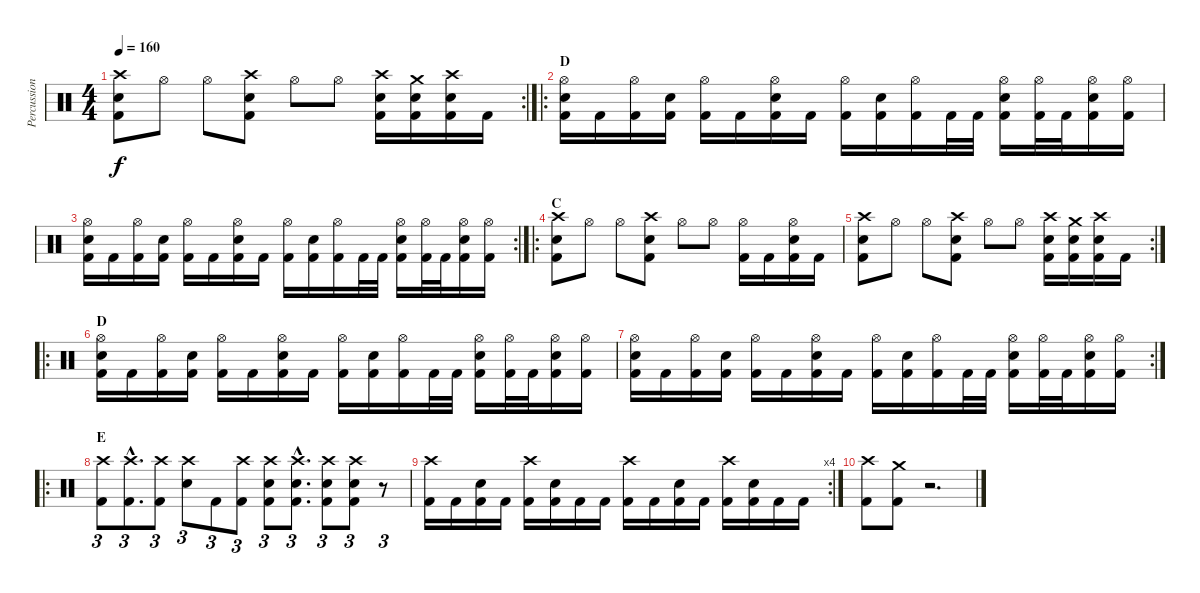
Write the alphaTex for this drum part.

\track ("Percussions" "Percussion") {instrument percussion}
\staff {score}
\articulation defaults
\rc 2
\ts (4 4)
\tempo 160
\clef neutral
\ks c
("Crash high (hit)" "Electric Snare (hit)" "Kick (hit) 2").8{dy f} "Hi-Hat (open)".8 "Hi-Hat (open)".8 ("Crash high (hit)" "Electric Snare (hit)" "Kick (hit) 2").8 "Hi-Hat (open)".8 "Hi-Hat (open)".8 ("Crash high (hit)" "Electric Snare (hit)" "Kick (hit) 2").16 ("Crash medium (hit)" "Electric Snare (hit)" "Kick (hit) 2").16 ("Crash high (hit)" "Electric Snare (hit)" "Kick (hit) 2").16 "Kick (hit) 2".16 |
\ro
\section ("" "D")
("Hi-Hat (open)" "Electric Snare (hit)" "Kick (hit) 2").16 "Kick (hit) 2".16 ("Hi-Hat (open)" "Kick (hit) 2").16 ("Electric Snare (hit)" "Kick (hit) 2").16 ("Hi-Hat (open)" "Kick (hit) 2").16 "Kick (hit) 2".16 ("Hi-Hat (open)" "Electric Snare (hit)" "Kick (hit) 2").16 "Kick (hit) 2".16 ("Hi-Hat (open)" "Kick (hit) 2").16 ("Electric Snare (hit)" "Kick (hit) 2").16 ("Hi-Hat (open)" "Kick (hit) 2").16 "Kick (hit) 2".32 "Kick (hit) 2".32 ("Hi-Hat (open)" "Electric Snare (hit)" "Kick (hit) 2").16 ("Hi-Hat (open)" "Kick (hit) 2").32 "Kick (hit) 2".32 ("Hi-Hat (open)" "Electric Snare (hit)" "Kick (hit) 2").16 ("Hi-Hat (open)" "Kick (hit) 2").16 |
\rc 2
("Hi-Hat (open)" "Electric Snare (hit)" "Kick (hit) 2").16 "Kick (hit) 2".16 ("Hi-Hat (open)" "Kick (hit) 2").16 ("Electric Snare (hit)" "Kick (hit) 2").16 ("Hi-Hat (open)" "Kick (hit) 2").16 "Kick (hit) 2".16 ("Hi-Hat (open)" "Electric Snare (hit)" "Kick (hit) 2").16 "Kick (hit) 2".16 ("Hi-Hat (open)" "Kick (hit) 2").16 ("Electric Snare (hit)" "Kick (hit) 2").16 ("Hi-Hat (open)" "Kick (hit) 2").16 "Kick (hit) 2".32 "Kick (hit) 2".32 ("Hi-Hat (open)" "Electric Snare (hit)" "Kick (hit) 2").16 ("Hi-Hat (open)" "Kick (hit) 2").32 "Kick (hit) 2".32 ("Hi-Hat (open)" "Electric Snare (hit)" "Kick (hit) 2").16 ("Hi-Hat (open)" "Kick (hit) 2").16 |
\ro
\section ("" "C")
("Crash high (hit)" "Electric Snare (hit)" "Kick (hit) 2").8 "Hi-Hat (open)".8 "Hi-Hat (open)".8 ("Crash high (hit)" "Electric Snare (hit)" "Kick (hit) 2").8 "Hi-Hat (open)".8 "Hi-Hat (open)".8 ("Hi-Hat (open)" "Kick (hit) 2").16 "Kick (hit) 2".16 ("Hi-Hat (open)" "Electric Snare (hit)" "Kick (hit) 2").16 "Kick (hit) 2".16 |
\rc 2
("Crash high (hit)" "Electric Snare (hit)" "Kick (hit) 2").8 "Hi-Hat (open)".8 "Hi-Hat (open)".8 ("Crash high (hit)" "Electric Snare (hit)" "Kick (hit) 2").8 "Hi-Hat (open)".8 "Hi-Hat (open)".8 ("Crash high (hit)" "Electric Snare (hit)" "Kick (hit) 2").16 ("Crash medium (hit)" "Electric Snare (hit)" "Kick (hit) 2").16 ("Crash high (hit)" "Electric Snare (hit)" "Kick (hit) 2").16 "Kick (hit) 2".16 |
\ro
\section ("" "D")
("Hi-Hat (open)" "Electric Snare (hit)" "Kick (hit) 2").16 "Kick (hit) 2".16 ("Hi-Hat (open)" "Kick (hit) 2").16 ("Electric Snare (hit)" "Kick (hit) 2").16 ("Hi-Hat (open)" "Kick (hit) 2").16 "Kick (hit) 2".16 ("Hi-Hat (open)" "Electric Snare (hit)" "Kick (hit) 2").16 "Kick (hit) 2".16 ("Hi-Hat (open)" "Kick (hit) 2").16 ("Electric Snare (hit)" "Kick (hit) 2").16 ("Hi-Hat (open)" "Kick (hit) 2").16 "Kick (hit) 2".32 "Kick (hit) 2".32 ("Hi-Hat (open)" "Electric Snare (hit)" "Kick (hit) 2").16 ("Hi-Hat (open)" "Kick (hit) 2").32 "Kick (hit) 2".32 ("Hi-Hat (open)" "Electric Snare (hit)" "Kick (hit) 2").16 ("Hi-Hat (open)" "Kick (hit) 2").16 |
\rc 2
("Hi-Hat (open)" "Electric Snare (hit)" "Kick (hit) 2").16 "Kick (hit) 2".16 ("Hi-Hat (open)" "Kick (hit) 2").16 ("Electric Snare (hit)" "Kick (hit) 2").16 ("Hi-Hat (open)" "Kick (hit) 2").16 "Kick (hit) 2".16 ("Hi-Hat (open)" "Electric Snare (hit)" "Kick (hit) 2").16 "Kick (hit) 2".16 ("Hi-Hat (open)" "Kick (hit) 2").16 ("Electric Snare (hit)" "Kick (hit) 2").16 ("Hi-Hat (open)" "Kick (hit) 2").16 "Kick (hit) 2".32 "Kick (hit) 2".32 ("Hi-Hat (open)" "Electric Snare (hit)" "Kick (hit) 2").16 ("Hi-Hat (open)" "Kick (hit) 2").32 "Kick (hit) 2".32 ("Hi-Hat (open)" "Electric Snare (hit)" "Kick (hit) 2").16 ("Hi-Hat (open)" "Kick (hit) 2").16 |
\ro
\section ("" "E")
("Crash high (hit)" "Kick (hit) 2").8{tu (3 2)} ("Crash high (hit)"{hac} "Kick (hit) 2"{hac}).8{d tu (3 2)} ("Crash high (hit)" "Kick (hit) 2").8{tu (3 2)} ("Crash high (hit)" "Electric Snare (hit)").8{tu (3 2)} "Kick (hit) 2".8{tu (3 2)} ("Crash high (hit)" "Kick (hit) 2").8{tu (3 2)} ("Crash high (hit)" "Electric Snare (hit)" "Kick (hit) 2").8{tu (3 2)} ("Crash high (hit)"{hac} "Electric Snare (hit)"{hac} "Kick (hit) 2"{hac}).8{d tu (3 2)} ("Crash high (hit)" "Electric Snare (hit)" "Kick (hit) 2").8{tu (3 2)} ("Crash high (hit)" "Electric Snare (hit)" "Kick (hit) 2").8{tu (3 2)} r.8{tu (3 2)} |
\rc 4
("Crash high (hit)" "Kick (hit) 2").16 "Kick (hit) 2".16 ("Electric Snare (hit)" "Kick (hit) 2").16 "Kick (hit) 2".16 ("Crash high (hit)" "Kick (hit) 2").16 ("Electric Snare (hit)" "Kick (hit) 2").16 "Kick (hit) 2".16 "Kick (hit) 2".16 ("Crash high (hit)" "Kick (hit) 2").16 "Kick (hit) 2".16 ("Electric Snare (hit)" "Kick (hit) 2").16 "Kick (hit) 2".16 ("Crash high (hit)" "Kick (hit) 2").16 ("Electric Snare (hit)" "Kick (hit) 2").16 "Kick (hit) 2".16 "Kick (hit) 2".16 |
("Crash high (hit)" "Kick (hit) 2").8 ("Crash medium (hit)" "Kick (hit) 2").8 r.2{d}
